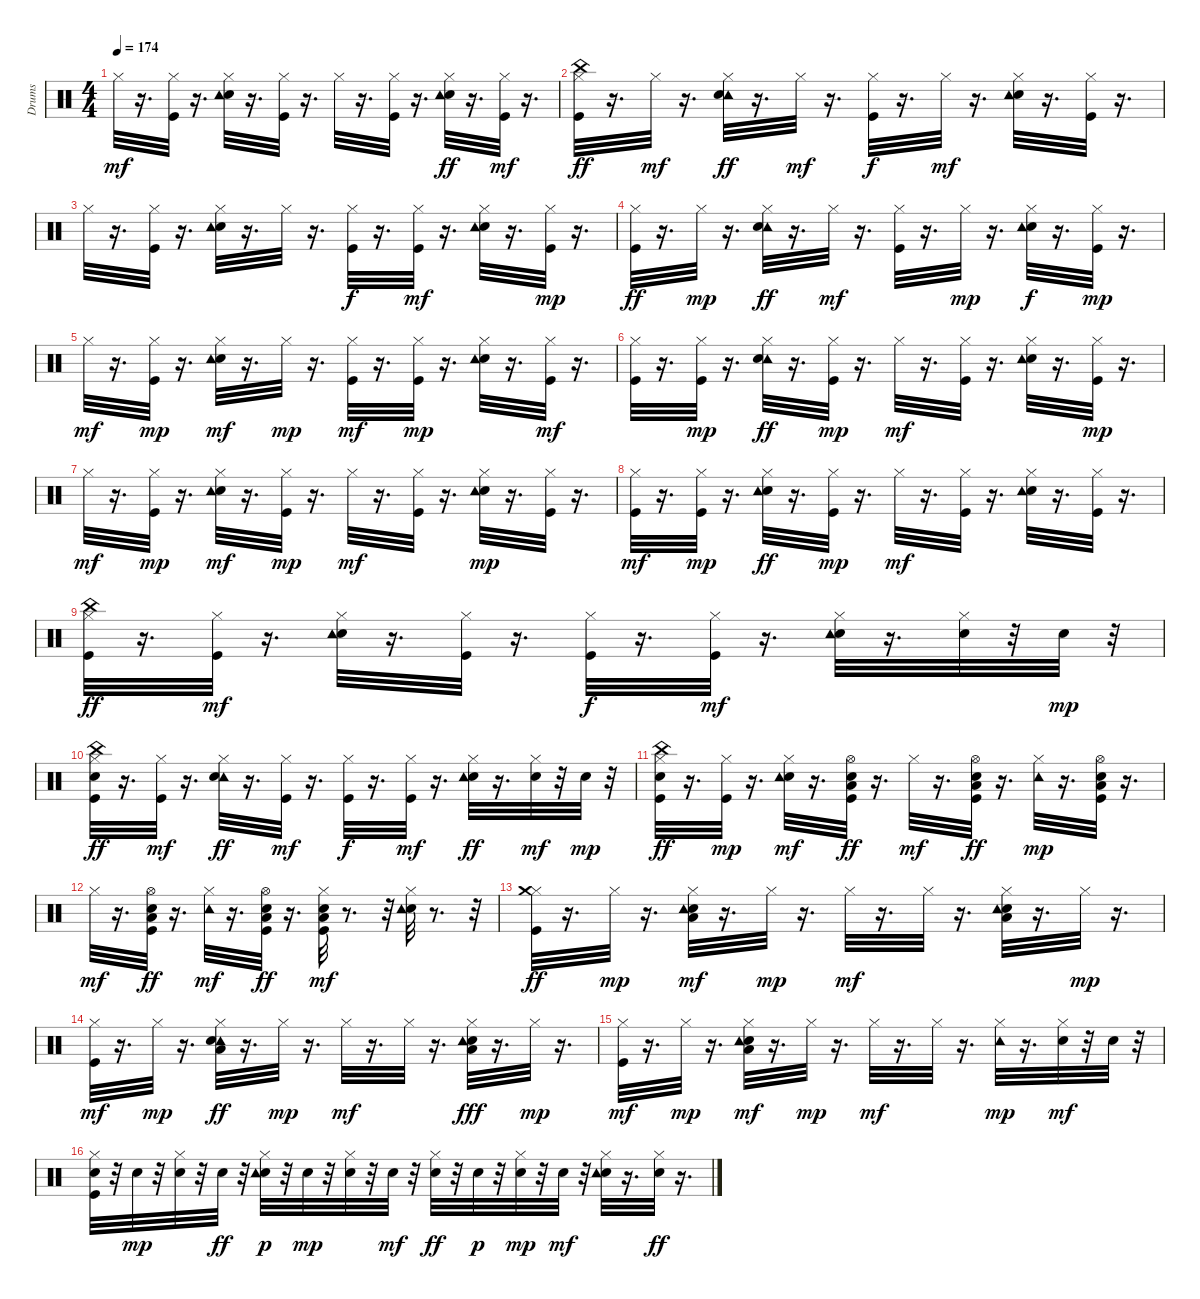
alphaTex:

\track ("Drums" "Drums") {instrument percussion}
\staff {score}
\articulation defaults
\ts (4 4)
\tempo 174
\clef neutral
\ks c "Hi-Hat (closed)".32{dy mf}
r.16{d} ("Kick (hit)" "Hi-Hat (closed)").32 r.16{d} ("Hi-Hat (closed)" "Electric Snare (hit)" "Tambourine (hit)").32 r.16{d} ("Kick (hit)" "Hi-Hat (closed)").32 r.16{d} "Hi-Hat (closed)".32 r.16{d} ("Kick (hit)" "Hi-Hat (closed)").32 r.16{d} ("Hi-Hat (closed)" "Electric Snare (hit)" "Tambourine (hit)").32{dy ff} r.16{d} ("Kick (hit)" "Hi-Hat (closed)").32{dy mf} r.16{d} |
("Kick (hit)" "Hi-Hat (closed)" "China (hit)").32{dy ff} r.16{d} "Hi-Hat (closed)".32{dy mf} r.16{d} ("Tambourine (hit)" "Hi-Hat (closed)" "Electric Snare (hit)").32{dy ff} r.16{d} "Hi-Hat (closed)".32{dy mf} r.16{d} ("Kick (hit)" "Hi-Hat (closed)").32{dy f} r.16{d} "Hi-Hat (closed)".32{dy mf} r.16{d} ("Hi-Hat (closed)" "Electric Snare (hit)" "Tambourine (hit)").32 r.16{d} ("Kick (hit)" "Hi-Hat (closed)").32 r.16{d} |
"Hi-Hat (closed)".32 r.16{d} ("Kick (hit)" "Hi-Hat (closed)").32 r.16{d} ("Hi-Hat (closed)" "Electric Snare (hit)" "Tambourine (hit)").32 r.16{d} "Hi-Hat (closed)".32 r.16{d} ("Kick (hit)" "Hi-Hat (closed)").32{dy f} r.16{d} ("Kick (hit)" "Hi-Hat (closed)").32{dy mf} r.16{d} ("Hi-Hat (closed)" "Electric Snare (hit)" "Tambourine (hit)").32 r.16{d} ("Kick (hit)" "Hi-Hat (closed)").32{dy mp} r.16{d} |
("Kick (hit)" "Hi-Hat (closed)").32{dy ff} r.16{d} "Hi-Hat (closed)".32{dy mp} r.16{d} ("Tambourine (hit)" "Hi-Hat (closed)" "Electric Snare (hit)").32{dy ff} r.16{d} "Hi-Hat (closed)".32{dy mf} r.16{d} ("Kick (hit)" "Hi-Hat (closed)").32 r.16{d} "Hi-Hat (closed)".32{dy mp} r.16{d} ("Hi-Hat (closed)" "Electric Snare (hit)" "Tambourine (hit)").32{dy f} r.16{d} ("Kick (hit)" "Hi-Hat (closed)").32{dy mp} r.16{d} |
"Hi-Hat (closed)".32{dy mf} r.16{d} ("Kick (hit)" "Hi-Hat (closed)").32{dy mp} r.16{d} ("Hi-Hat (closed)" "Electric Snare (hit)" "Tambourine (hit)").32{dy mf} r.16{d} "Hi-Hat (closed)".32{dy mp} r.16{d} ("Kick (hit)" "Hi-Hat (closed)").32{dy mf} r.16{d} ("Kick (hit)" "Hi-Hat (closed)").32{dy mp} r.16{d} ("Hi-Hat (closed)" "Electric Snare (hit)" "Tambourine (hit)").32 r.16{d} ("Kick (hit)" "Hi-Hat (closed)").32{dy mf} r.16{d} |
("Kick (hit)" "Hi-Hat (closed)").32 r.16{d} ("Kick (hit)" "Hi-Hat (closed)").32{dy mp} r.16{d} ("Tambourine (hit)" "Hi-Hat (closed)" "Electric Snare (hit)").32{dy ff} r.16{d} ("Kick (hit)" "Hi-Hat (closed)").32{dy mp} r.16{d} "Hi-Hat (closed)".32{dy mf} r.16{d} ("Kick (hit)" "Hi-Hat (closed)").32 r.16{d} ("Hi-Hat (closed)" "Electric Snare (hit)" "Tambourine (hit)").32 r.16{d} ("Kick (hit)" "Hi-Hat (closed)").32{dy mp} r.16{d} |
"Hi-Hat (closed)".32{dy mf} r.16{d} ("Kick (hit)" "Hi-Hat (closed)").32{dy mp} r.16{d} ("Hi-Hat (closed)" "Electric Snare (hit)" "Tambourine (hit)").32{dy mf} r.16{d} ("Kick (hit)" "Hi-Hat (closed)").32{dy mp} r.16{d} "Hi-Hat (closed)".32{dy mf} r.16{d} ("Kick (hit)" "Hi-Hat (closed)").32 r.16{d} ("Hi-Hat (closed)" "Electric Snare (hit)" "Tambourine (hit)").32{dy mp} r.16{d} ("Kick (hit)" "Hi-Hat (closed)").32 r.16{d} |
("Kick (hit)" "Hi-Hat (closed)").32{dy mf} r.16{d} ("Kick (hit)" "Hi-Hat (closed)").32{dy mp} r.16{d} ("Hi-Hat (closed)" "Electric Snare (hit)" "Tambourine (hit)").32{dy ff} r.16{d} ("Kick (hit)" "Hi-Hat (closed)").32{dy mp} r.16{d} "Hi-Hat (closed)".32{dy mf} r.16{d} ("Kick (hit)" "Hi-Hat (closed)").32 r.16{d} ("Hi-Hat (closed)" "Electric Snare (hit)" "Tambourine (hit)").32 r.16{d} ("Kick (hit)" "Hi-Hat (closed)").32 r.16{d} |
("Kick (hit)" "Hi-Hat (closed)" "China (hit)").32{dy ff} r.16{d} ("Kick (hit)" "Hi-Hat (closed)").32{dy mf} r.16{d} ("Hi-Hat (closed)" "Electric Snare (hit)" "Tambourine (hit)").32 r.16{d} ("Kick (hit)" "Hi-Hat (closed)").32 r.16{d} ("Kick (hit)" "Hi-Hat (closed)").32{dy f} r.16{d} ("Kick (hit)" "Hi-Hat (closed)").32{dy mf} r.16{d} ("Hi-Hat (closed)" "Electric Snare (hit)" "Tambourine (hit)").32 r.16{d} ("Hi-Hat (closed)" "Electric Snare (hit)").32 r.32 "Electric Snare (hit)".32{dy mp} r.32 |
("Kick (hit)" "Hi-Hat (closed)" "Electric Snare (hit)" "China (hit)").32{dy ff} r.16{d} ("Kick (hit)" "Hi-Hat (closed)").32{dy mf} r.16{d} ("Tambourine (hit)" "Hi-Hat (closed)" "Electric Snare (hit)").32{dy ff} r.16{d} ("Kick (hit)" "Hi-Hat (closed)").32{dy mf} r.16{d} ("Kick (hit)" "Hi-Hat (closed)").32{dy f} r.16{d} ("Kick (hit)" "Hi-Hat (closed)").32{dy mf} r.16{d} ("Hi-Hat (closed)" "Electric Snare (hit)" "Tambourine (hit)").32{dy ff} r.16{d} ("Hi-Hat (closed)" "Electric Snare (hit)").32{dy mf} r.32 "Electric Snare (hit)".32{dy mp} r.32 |
("Kick (hit)" "Hi-Hat (closed)" "Electric Snare (hit)" "China (hit)").32{dy ff} r.16{d} ("Kick (hit)" "Hi-Hat (closed)").32{dy mp} r.16{d} ("Hi-Hat (closed)" "Electric Snare (hit)" "Tambourine (hit)").32{dy mf} r.16{d} ("Low Tom (hit)" "Kick (hit)" "Hi-Hat (open)" "Electric Snare (hit)").32{dy ff} r.16{d} "Hi-Hat (closed)".32{dy mf} r.16{d} ("Low Tom (hit)" "Kick (hit)" "Hi-Hat (open)" "Electric Snare (hit)").32{dy ff} r.16{d} ("Hi-Hat (closed)" "Tambourine (hit)").32{dy mp} r.16{d} ("Low Tom (hit)" "Kick (hit)" "Hi-Hat (open)" "Electric Snare (hit)").32 r.16{d} |
"Hi-Hat (closed)".32{dy mf} r.16{d} ("Low Tom (hit)" "Kick (hit)" "Hi-Hat (open)" "Electric Snare (hit)").32{dy ff} r.16{d} ("Hi-Hat (closed)" "Tambourine (hit)").32{dy mf} r.16{d} ("Low Tom (hit)" "Kick (hit)" "Hi-Hat (open)" "Electric Snare (hit)").32{dy ff} r.16{d} ("Low Tom (hit)" "Kick (hit)" "Hi-Hat (closed)" "Electric Snare (hit)").32{dy mf} r.8{d} r.32 ("Hi-Hat (closed)" "Electric Snare (hit)" "Tambourine (hit)").32 r.8{d} r.32 |
("Kick (hit)" "Hi-Hat (closed)" "Crash medium (hit)").32{dy ff} r.16{d} "Hi-Hat (closed)".32{dy mp} r.16{d} ("Low Tom (hit)" "Hi-Hat (closed)" "Electric Snare (hit)" "Tambourine (hit)").32{dy mf} r.16{d} "Hi-Hat (closed)".32{dy mp} r.16{d} "Hi-Hat (closed)".32{dy mf} r.16{d} "Hi-Hat (closed)".32 r.16{d} ("Low Tom (hit)" "Hi-Hat (closed)" "Electric Snare (hit)" "Tambourine (hit)").32 r.16{d} "Hi-Hat (closed)".32{dy mp} r.16{d} |
("Kick (hit)" "Hi-Hat (closed)").32{dy mf} r.16{d} "Hi-Hat (closed)".32{dy mp} r.16{d} ("Tambourine (hit)" "Low Tom (hit)" "Hi-Hat (closed)" "Electric Snare (hit)").32{dy ff} r.16{d} "Hi-Hat (closed)".32{dy mp} r.16{d} "Hi-Hat (closed)".32{dy mf} r.16{d} "Hi-Hat (closed)".32 r.16{d} ("Low Tom (hit)" "Hi-Hat (closed)" "Electric Snare (hit)" "Tambourine (hit)").32{dy fff} r.16{d} "Hi-Hat (closed)".32{dy mp} r.16{d} |
("Kick (hit)" "Hi-Hat (closed)").32{dy mf} r.16{d} "Hi-Hat (closed)".32{dy mp} r.16{d} ("Low Tom (hit)" "Hi-Hat (closed)" "Electric Snare (hit)" "Tambourine (hit)").32{dy mf} r.16{d} "Hi-Hat (closed)".32{dy mp} r.16{d} "Hi-Hat (closed)".32{dy mf} r.16{d} "Hi-Hat (closed)".32 r.16{d} ("Hi-Hat (closed)" "Tambourine (hit)").32{dy mp} r.16{d} ("Hi-Hat (closed)" "Electric Snare (hit)").32{dy mf} r.32 "Electric Snare (hit)".32 r.32 |
("Kick (hit)" "Hi-Hat (closed)" "Electric Snare (hit)").32 r.32 "Electric Snare (hit)".32{dy mp} r.32 ("Hi-Hat (closed)" "Electric Snare (hit)").32 r.32 "Electric Snare (hit)".32{dy ff} r.32 ("Hi-Hat (closed)" "Electric Snare (hit)" "Tambourine (hit)").32{dy p} r.32 "Electric Snare (hit)".32{dy mp} r.32 ("Hi-Hat (closed)" "Electric Snare (hit)").32 r.32 "Electric Snare (hit)".32{dy mf} r.32 ("Hi-Hat (closed)" "Electric Snare (hit)").32{dy ff} r.32 "Electric Snare (hit)".32{dy p} r.32 ("Hi-Hat (closed)" "Electric Snare (hit)").32{dy mp} r.32 "Electric Snare (hit)".32{dy mf} r.32 ("Hi-Hat (closed)" "Electric Snare (hit)" "Tambourine (hit)").32 r.16{d} ("Hi-Hat (closed)" "Electric Snare (hit)").32{dy ff} r.16{d}
